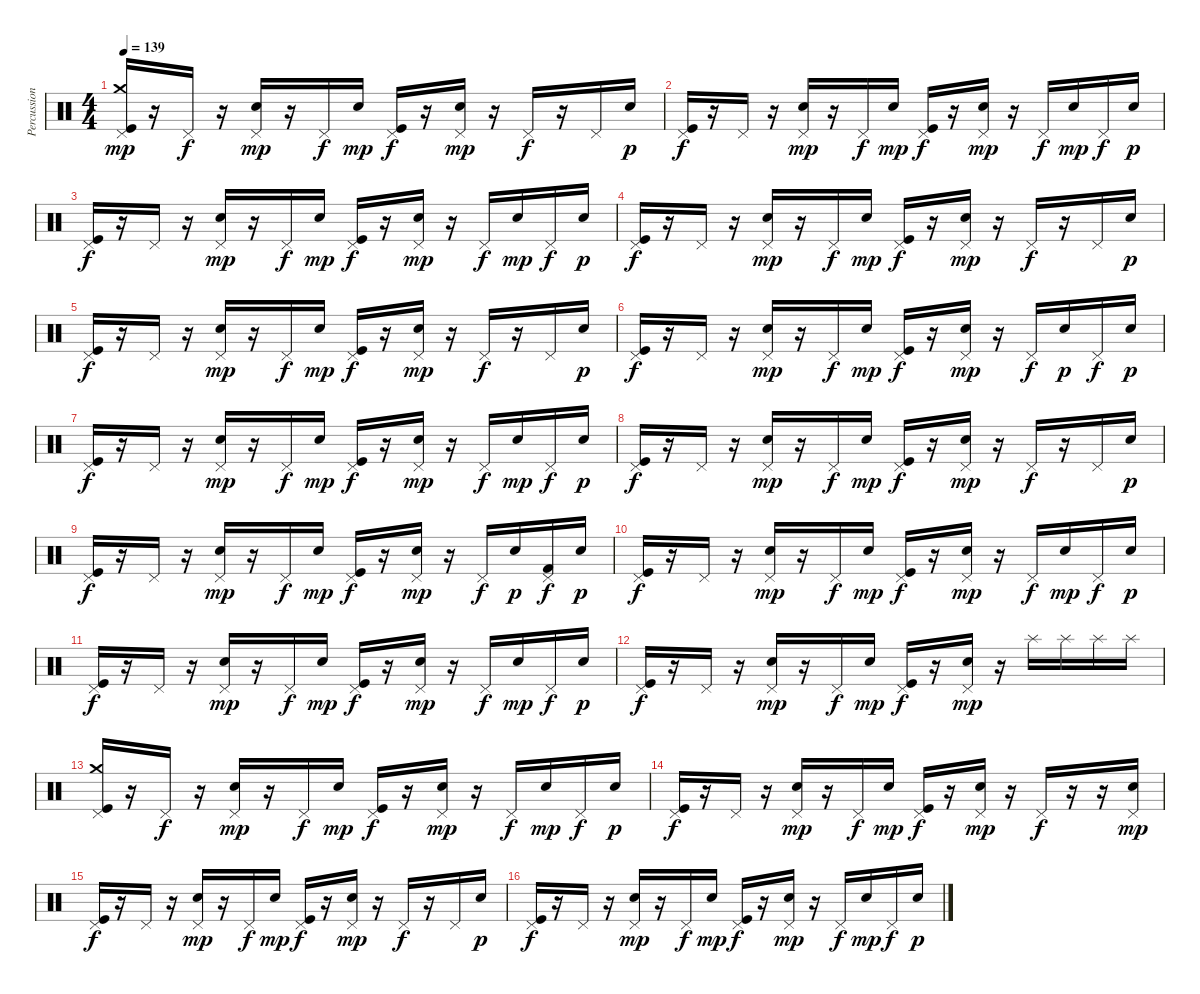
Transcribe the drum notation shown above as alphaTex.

\track ("Percussion" "Percussion") {instrument percussion}
\staff {score}
\articulation defaults
\ts (4 4)
\tempo 139
\clef neutral
\ks c
("Pedal Hi-Hat (hit)" "Crash medium (hit)" "Kick (hit)").16{dy mp} r.16 "Pedal Hi-Hat (hit)".16{dy f} r.16 ("Pedal Hi-Hat (hit)" "Electric Snare (hit)").16{dy mp} r.16 "Pedal Hi-Hat (hit)".16{dy f} "Electric Snare (hit)".16{dy mp} ("Pedal Hi-Hat (hit)" "Kick (hit)").16{dy f} r.16 ("Pedal Hi-Hat (hit)" "Electric Snare (hit)").16{dy mp} r.16 "Pedal Hi-Hat (hit)".16{dy f} r.16 "Pedal Hi-Hat (hit)".16 "Electric Snare (hit)".16{dy p} |
("Pedal Hi-Hat (hit)" "Kick (hit)").16{dy f} r.16 "Pedal Hi-Hat (hit)".16 r.16 ("Pedal Hi-Hat (hit)" "Electric Snare (hit)").16{dy mp} r.16 "Pedal Hi-Hat (hit)".16{dy f} "Electric Snare (hit)".16{dy mp} ("Pedal Hi-Hat (hit)" "Kick (hit)").16{dy f} r.16 ("Pedal Hi-Hat (hit)" "Electric Snare (hit)").16{dy mp} r.16 "Pedal Hi-Hat (hit)".16{dy f} "Electric Snare (hit)".16{dy mp} "Pedal Hi-Hat (hit)".16{dy f} "Electric Snare (hit)".16{dy p} |
("Pedal Hi-Hat (hit)" "Kick (hit)").16{dy f} r.16 "Pedal Hi-Hat (hit)".16 r.16 ("Pedal Hi-Hat (hit)" "Electric Snare (hit)").16{dy mp} r.16 "Pedal Hi-Hat (hit)".16{dy f} "Electric Snare (hit)".16{dy mp} ("Pedal Hi-Hat (hit)" "Kick (hit)").16{dy f} r.16 ("Pedal Hi-Hat (hit)" "Electric Snare (hit)").16{dy mp} r.16 "Pedal Hi-Hat (hit)".16{dy f} "Electric Snare (hit)".16{dy mp} "Pedal Hi-Hat (hit)".16{dy f} "Electric Snare (hit)".16{dy p} |
("Pedal Hi-Hat (hit)" "Kick (hit)").16{dy f} r.16 "Pedal Hi-Hat (hit)".16 r.16 ("Pedal Hi-Hat (hit)" "Electric Snare (hit)").16{dy mp} r.16 "Pedal Hi-Hat (hit)".16{dy f} "Electric Snare (hit)".16{dy mp} ("Pedal Hi-Hat (hit)" "Kick (hit)").16{dy f} r.16 ("Pedal Hi-Hat (hit)" "Electric Snare (hit)").16{dy mp} r.16 "Pedal Hi-Hat (hit)".16{dy f} r.16 "Pedal Hi-Hat (hit)".16 "Electric Snare (hit)".16{dy p} |
("Pedal Hi-Hat (hit)" "Kick (hit)").16{dy f} r.16 "Pedal Hi-Hat (hit)".16 r.16 ("Pedal Hi-Hat (hit)" "Electric Snare (hit)").16{dy mp} r.16 "Pedal Hi-Hat (hit)".16{dy f} "Electric Snare (hit)".16{dy mp} ("Pedal Hi-Hat (hit)" "Kick (hit)").16{dy f} r.16 ("Pedal Hi-Hat (hit)" "Electric Snare (hit)").16{dy mp} r.16 "Pedal Hi-Hat (hit)".16{dy f} r.16 "Pedal Hi-Hat (hit)".16 "Electric Snare (hit)".16{dy p} |
("Pedal Hi-Hat (hit)" "Kick (hit)").16{dy f} r.16 "Pedal Hi-Hat (hit)".16 r.16 ("Pedal Hi-Hat (hit)" "Electric Snare (hit)").16{dy mp} r.16 "Pedal Hi-Hat (hit)".16{dy f} "Electric Snare (hit)".16{dy mp} ("Pedal Hi-Hat (hit)" "Kick (hit)").16{dy f} r.16 ("Pedal Hi-Hat (hit)" "Electric Snare (hit)").16{dy mp} r.16 "Pedal Hi-Hat (hit)".16{dy f} "Electric Snare (hit)".16{dy p} "Pedal Hi-Hat (hit)".16{dy f} "Electric Snare (hit)".16{dy p} |
("Pedal Hi-Hat (hit)" "Kick (hit)").16{dy f} r.16 "Pedal Hi-Hat (hit)".16 r.16 ("Pedal Hi-Hat (hit)" "Electric Snare (hit)").16{dy mp} r.16 "Pedal Hi-Hat (hit)".16{dy f} "Electric Snare (hit)".16{dy mp} ("Pedal Hi-Hat (hit)" "Kick (hit)").16{dy f} r.16 ("Pedal Hi-Hat (hit)" "Electric Snare (hit)").16{dy mp} r.16 "Pedal Hi-Hat (hit)".16{dy f} "Electric Snare (hit)".16{dy mp} "Pedal Hi-Hat (hit)".16{dy f} "Electric Snare (hit)".16{dy p} |
("Pedal Hi-Hat (hit)" "Kick (hit)").16{dy f} r.16 "Pedal Hi-Hat (hit)".16 r.16 ("Pedal Hi-Hat (hit)" "Electric Snare (hit)").16{dy mp} r.16 "Pedal Hi-Hat (hit)".16{dy f} "Electric Snare (hit)".16{dy mp} ("Pedal Hi-Hat (hit)" "Kick (hit)").16{dy f} r.16 ("Pedal Hi-Hat (hit)" "Electric Snare (hit)").16{dy mp} r.16 "Pedal Hi-Hat (hit)".16{dy f} r.16 "Pedal Hi-Hat (hit)".16 "Electric Snare (hit)".16{dy p} |
("Pedal Hi-Hat (hit)" "Kick (hit)").16{dy f} r.16 "Pedal Hi-Hat (hit)".16 r.16 ("Pedal Hi-Hat (hit)" "Electric Snare (hit)").16{dy mp} r.16 "Pedal Hi-Hat (hit)".16{dy f} "Electric Snare (hit)".16{dy mp} ("Pedal Hi-Hat (hit)" "Kick (hit)").16{dy f} r.16 ("Pedal Hi-Hat (hit)" "Electric Snare (hit)").16{dy mp} r.16 "Pedal Hi-Hat (hit)".16{dy f} "Electric Snare (hit)".16{dy p} ("Pedal Hi-Hat (hit)" "Kick (hit) 2").16{dy f} "Electric Snare (hit)".16{dy p} |
("Pedal Hi-Hat (hit)" "Kick (hit)").16{dy f} r.16 "Pedal Hi-Hat (hit)".16 r.16 ("Pedal Hi-Hat (hit)" "Electric Snare (hit)").16{dy mp} r.16 "Pedal Hi-Hat (hit)".16{dy f} "Electric Snare (hit)".16{dy mp} ("Pedal Hi-Hat (hit)" "Kick (hit)").16{dy f} r.16 ("Pedal Hi-Hat (hit)" "Electric Snare (hit)").16{dy mp} r.16 "Pedal Hi-Hat (hit)".16{dy f} "Electric Snare (hit)".16{dy mp} "Pedal Hi-Hat (hit)".16{dy f} "Electric Snare (hit)".16{dy p} |
("Pedal Hi-Hat (hit)" "Kick (hit)").16{dy f} r.16 "Pedal Hi-Hat (hit)".16 r.16 ("Pedal Hi-Hat (hit)" "Electric Snare (hit)").16{dy mp} r.16 "Pedal Hi-Hat (hit)".16{dy f} "Electric Snare (hit)".16{dy mp} ("Pedal Hi-Hat (hit)" "Kick (hit)").16{dy f} r.16 ("Pedal Hi-Hat (hit)" "Electric Snare (hit)").16{dy mp} r.16 "Pedal Hi-Hat (hit)".16{dy f} "Electric Snare (hit)".16{dy mp} "Pedal Hi-Hat (hit)".16{dy f} "Electric Snare (hit)".16{dy p} |
("Pedal Hi-Hat (hit)" "Kick (hit)").16{dy f} r.16 "Pedal Hi-Hat (hit)".16 r.16 ("Pedal Hi-Hat (hit)" "Electric Snare (hit)").16{dy mp} r.16 "Pedal Hi-Hat (hit)".16{dy f} "Electric Snare (hit)".16{dy mp} ("Pedal Hi-Hat (hit)" "Kick (hit)").16{dy f} r.16 ("Pedal Hi-Hat (hit)" "Electric Snare (hit)").16{dy mp} r.16 "Splash (hit)".16 "Splash (hit)".16 "Splash (hit)".16 "Splash (hit)".16 |
("Pedal Hi-Hat (hit)" "Crash medium (hit)" "Kick (hit)").16 r.16 "Pedal Hi-Hat (hit)".16{dy f} r.16 ("Pedal Hi-Hat (hit)" "Electric Snare (hit)").16{dy mp} r.16 "Pedal Hi-Hat (hit)".16{dy f} "Electric Snare (hit)".16{dy mp} ("Pedal Hi-Hat (hit)" "Kick (hit)").16{dy f} r.16 ("Pedal Hi-Hat (hit)" "Electric Snare (hit)").16{dy mp} r.16 "Pedal Hi-Hat (hit)".16{dy f} "Electric Snare (hit)".16{dy mp} "Pedal Hi-Hat (hit)".16{dy f} "Electric Snare (hit)".16{dy p} |
("Pedal Hi-Hat (hit)" "Kick (hit)").16{dy f} r.16 "Pedal Hi-Hat (hit)".16 r.16 ("Pedal Hi-Hat (hit)" "Electric Snare (hit)").16{dy mp} r.16 "Pedal Hi-Hat (hit)".16{dy f} "Electric Snare (hit)".16{dy mp} ("Pedal Hi-Hat (hit)" "Kick (hit)").16{dy f} r.16 ("Pedal Hi-Hat (hit)" "Electric Snare (hit)").16{dy mp} r.16 "Pedal Hi-Hat (hit)".16{dy f} r.16 r.16 ("Pedal Hi-Hat (hit)" "Electric Snare (hit)").16{dy mp} |
("Pedal Hi-Hat (hit)" "Kick (hit)").16{dy f} r.16 "Pedal Hi-Hat (hit)".16 r.16 ("Pedal Hi-Hat (hit)" "Electric Snare (hit)").16{dy mp} r.16 "Pedal Hi-Hat (hit)".16{dy f} "Electric Snare (hit)".16{dy mp} ("Pedal Hi-Hat (hit)" "Kick (hit)").16{dy f} r.16 ("Pedal Hi-Hat (hit)" "Electric Snare (hit)").16{dy mp} r.16 "Pedal Hi-Hat (hit)".16{dy f} r.16 "Pedal Hi-Hat (hit)".16 "Electric Snare (hit)".16{dy p} |
("Pedal Hi-Hat (hit)" "Kick (hit)").16{dy f} r.16 "Pedal Hi-Hat (hit)".16 r.16 ("Pedal Hi-Hat (hit)" "Electric Snare (hit)").16{dy mp} r.16 "Pedal Hi-Hat (hit)".16{dy f} "Electric Snare (hit)".16{dy mp} ("Pedal Hi-Hat (hit)" "Kick (hit)").16{dy f} r.16 ("Pedal Hi-Hat (hit)" "Electric Snare (hit)").16{dy mp} r.16 "Pedal Hi-Hat (hit)".16{dy f} "Electric Snare (hit)".16{dy mp} "Pedal Hi-Hat (hit)".16{dy f} "Electric Snare (hit)".16{dy p}
